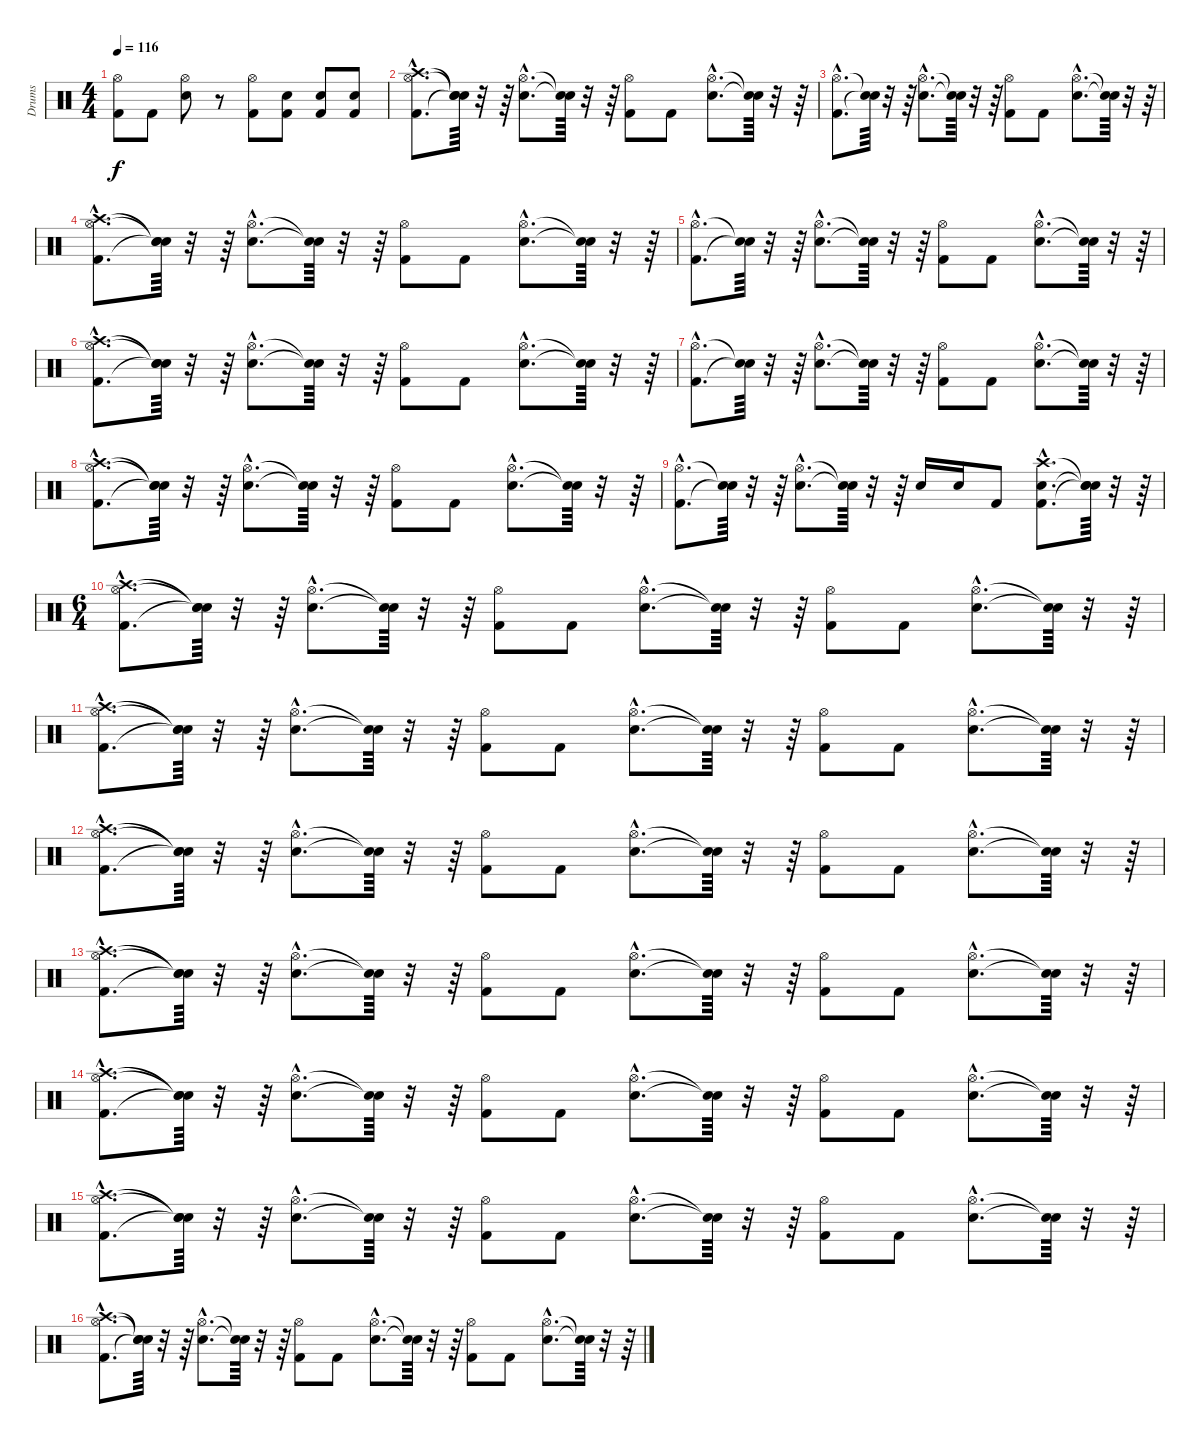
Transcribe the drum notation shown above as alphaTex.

\track ("Drums" "Drums") {instrument percussion}
\staff {score}
\articulation defaults
\ts (4 4)
\tempo 116
\clef neutral
\ks c
("Kick (hit) 2" "Hi-Hat (open)").8{dy f} "Kick (hit) 2".8 ("Snare (hit) 2" "Hi-Hat (open)").8 r.8 ("Kick (hit) 2" "Hi-Hat (open)").8 ("Kick (hit) 2" "Snare (hit) 2").8 ("Kick (hit) 2" "Snare (hit) 2").8 ("Kick (hit) 2" "Snare (hit) 2").8 |
("Kick (hit) 2"{hac} "Hi-Hat (open)"{hac} "Crash high (hit)"{hac}).8{d} ("Snare (hit)"{t} "Snare (hit)"{t} "Snare (hit)"{t}).64 r.32 r.64 ("Snare (hit) 2"{hac} "Hi-Hat (open)"{hac}).8{d} ("Snare (hit)"{t} "Snare (hit)"{t}).64 r.32 r.64 ("Kick (hit) 2" "Hi-Hat (open)").8 "Kick (hit) 2".8 ("Snare (hit) 2"{hac} "Hi-Hat (open)"{hac}).8{d} ("Snare (hit)"{t} "Snare (hit)"{t}).64 r.32 r.64 |
("Kick (hit) 2"{hac} "Hi-Hat (open)"{hac}).8{d} ("Snare (hit)"{t} "Snare (hit)"{t}).64 r.32 r.64 ("Snare (hit) 2"{hac} "Hi-Hat (open)"{hac}).8{d} ("Snare (hit)"{t} "Snare (hit)"{t}).64 r.32 r.64 ("Kick (hit) 2" "Hi-Hat (open)").8 "Kick (hit) 2".8 ("Snare (hit) 2"{hac} "Hi-Hat (open)"{hac}).8{d} ("Snare (hit)"{t} "Snare (hit)"{t}).64 r.32 r.64 |
("Kick (hit) 2"{hac} "Hi-Hat (open)"{hac} "Crash high (hit)"{hac}).8{d} ("Snare (hit)"{t} "Snare (hit)"{t} "Snare (hit)"{t}).64 r.32 r.64 ("Snare (hit) 2"{hac} "Hi-Hat (open)"{hac}).8{d} ("Snare (hit)"{t} "Snare (hit)"{t}).64 r.32 r.64 ("Kick (hit) 2" "Hi-Hat (open)").8 "Kick (hit) 2".8 ("Snare (hit) 2"{hac} "Hi-Hat (open)"{hac}).8{d} ("Snare (hit)"{t} "Snare (hit)"{t}).64 r.32 r.64 |
("Kick (hit) 2"{hac} "Hi-Hat (open)"{hac}).8{d} ("Snare (hit)"{t} "Snare (hit)"{t}).64 r.32 r.64 ("Snare (hit) 2"{hac} "Hi-Hat (open)"{hac}).8{d} ("Snare (hit)"{t} "Snare (hit)"{t}).64 r.32 r.64 ("Kick (hit) 2" "Hi-Hat (open)").8 "Kick (hit) 2".8 ("Snare (hit) 2"{hac} "Hi-Hat (open)"{hac}).8{d} ("Snare (hit)"{t} "Snare (hit)"{t}).64 r.32 r.64 |
("Kick (hit) 2"{hac} "Hi-Hat (open)"{hac} "Crash high (hit)"{hac}).8{d} ("Snare (hit)"{t} "Snare (hit)"{t} "Snare (hit)"{t}).64 r.32 r.64 ("Snare (hit) 2"{hac} "Hi-Hat (open)"{hac}).8{d} ("Snare (hit)"{t} "Snare (hit)"{t}).64 r.32 r.64 ("Kick (hit) 2" "Hi-Hat (open)").8 "Kick (hit) 2".8 ("Snare (hit) 2"{hac} "Hi-Hat (open)"{hac}).8{d} ("Snare (hit)"{t} "Snare (hit)"{t}).64 r.32 r.64 |
("Kick (hit) 2"{hac} "Hi-Hat (open)"{hac}).8{d} ("Snare (hit)"{t} "Snare (hit)"{t}).64 r.32 r.64 ("Snare (hit) 2"{hac} "Hi-Hat (open)"{hac}).8{d} ("Snare (hit)"{t} "Snare (hit)"{t}).64 r.32 r.64 ("Kick (hit) 2" "Hi-Hat (open)").8 "Kick (hit) 2".8 ("Snare (hit) 2"{hac} "Hi-Hat (open)"{hac}).8{d} ("Snare (hit)"{t} "Snare (hit)"{t}).64 r.32 r.64 |
("Kick (hit) 2"{hac} "Hi-Hat (open)"{hac} "Crash high (hit)"{hac}).8{d} ("Snare (hit)"{t} "Snare (hit)"{t} "Snare (hit)"{t}).64 r.32 r.64 ("Snare (hit) 2"{hac} "Hi-Hat (open)"{hac}).8{d} ("Snare (hit)"{t} "Snare (hit)"{t}).64 r.32 r.64 ("Kick (hit) 2" "Hi-Hat (open)").8 "Kick (hit) 2".8 ("Snare (hit) 2"{hac} "Hi-Hat (open)"{hac}).8{d} ("Snare (hit)"{t} "Snare (hit)"{t}).64 r.32 r.64 |
("Kick (hit) 2"{hac} "Hi-Hat (open)"{hac}).8{d} ("Snare (hit)"{t} "Snare (hit)"{t}).64 r.32 r.64 ("Snare (hit) 2"{hac} "Hi-Hat (open)"{hac}).8{d} ("Snare (hit)"{t} "Snare (hit)"{t}).64 r.32 r.64 "Snare (hit) 2".16 "Snare (hit) 2".16 "Kick (hit) 2".8 ("Kick (hit) 2"{hac} "Snare (hit) 2"{hac} "Crash high (hit)"{hac}).8{d} ("Snare (hit)"{t} "Snare (hit)"{t} "Snare (hit)"{t}).64 r.32 r.64 |
\ts (6 4)
("Kick (hit) 2"{hac} "Hi-Hat (open)"{hac} "Crash high (hit)"{hac}).8{d} ("Snare (hit)"{t} "Snare (hit)"{t} "Snare (hit)"{t}).64 r.32 r.64 ("Snare (hit) 2"{hac} "Hi-Hat (open)"{hac}).8{d} ("Snare (hit)"{t} "Snare (hit)"{t}).64 r.32 r.64 ("Kick (hit) 2" "Hi-Hat (open)").8 "Kick (hit) 2".8 ("Snare (hit) 2"{hac} "Hi-Hat (open)"{hac}).8{d} ("Snare (hit)"{t} "Snare (hit)"{t}).64 r.32 r.64 ("Kick (hit) 2" "Hi-Hat (open)").8 "Kick (hit) 2".8 ("Snare (hit) 2"{hac} "Hi-Hat (open)"{hac}).8{d} ("Snare (hit)"{t} "Snare (hit)"{t}).64 r.32 r.64 |
("Kick (hit) 2"{hac} "Hi-Hat (open)"{hac} "Crash high (hit)"{hac}).8{d} ("Snare (hit)"{t} "Snare (hit)"{t} "Snare (hit)"{t}).64 r.32 r.64 ("Snare (hit) 2"{hac} "Hi-Hat (open)"{hac}).8{d} ("Snare (hit)"{t} "Snare (hit)"{t}).64 r.32 r.64 ("Kick (hit) 2" "Hi-Hat (open)").8 "Kick (hit) 2".8 ("Snare (hit) 2"{hac} "Hi-Hat (open)"{hac}).8{d} ("Snare (hit)"{t} "Snare (hit)"{t}).64 r.32 r.64 ("Kick (hit) 2" "Hi-Hat (open)").8 "Kick (hit) 2".8 ("Snare (hit) 2"{hac} "Hi-Hat (open)"{hac}).8{d} ("Snare (hit)"{t} "Snare (hit)"{t}).64 r.32 r.64 |
("Kick (hit) 2"{hac} "Hi-Hat (open)"{hac} "Crash high (hit)"{hac}).8{d} ("Snare (hit)"{t} "Snare (hit)"{t} "Snare (hit)"{t}).64 r.32 r.64 ("Snare (hit) 2"{hac} "Hi-Hat (open)"{hac}).8{d} ("Snare (hit)"{t} "Snare (hit)"{t}).64 r.32 r.64 ("Kick (hit) 2" "Hi-Hat (open)").8 "Kick (hit) 2".8 ("Snare (hit) 2"{hac} "Hi-Hat (open)"{hac}).8{d} ("Snare (hit)"{t} "Snare (hit)"{t}).64 r.32 r.64 ("Kick (hit) 2" "Hi-Hat (open)").8 "Kick (hit) 2".8 ("Snare (hit) 2"{hac} "Hi-Hat (open)"{hac}).8{d} ("Snare (hit)"{t} "Snare (hit)"{t}).64 r.32 r.64 |
("Kick (hit) 2"{hac} "Hi-Hat (open)"{hac} "Crash high (hit)"{hac}).8{d} ("Snare (hit)"{t} "Snare (hit)"{t} "Snare (hit)"{t}).64 r.32 r.64 ("Snare (hit) 2"{hac} "Hi-Hat (open)"{hac}).8{d} ("Snare (hit)"{t} "Snare (hit)"{t}).64 r.32 r.64 ("Kick (hit) 2" "Hi-Hat (open)").8 "Kick (hit) 2".8 ("Snare (hit) 2"{hac} "Hi-Hat (open)"{hac}).8{d} ("Snare (hit)"{t} "Snare (hit)"{t}).64 r.32 r.64 ("Kick (hit) 2" "Hi-Hat (open)").8 "Kick (hit) 2".8 ("Snare (hit) 2"{hac} "Hi-Hat (open)"{hac}).8{d} ("Snare (hit)"{t} "Snare (hit)"{t}).64 r.32 r.64 |
("Kick (hit) 2"{hac} "Hi-Hat (open)"{hac} "Crash high (hit)"{hac}).8{d} ("Snare (hit)"{t} "Snare (hit)"{t} "Snare (hit)"{t}).64 r.32 r.64 ("Snare (hit) 2"{hac} "Hi-Hat (open)"{hac}).8{d} ("Snare (hit)"{t} "Snare (hit)"{t}).64 r.32 r.64 ("Kick (hit) 2" "Hi-Hat (open)").8 "Kick (hit) 2".8 ("Snare (hit) 2"{hac} "Hi-Hat (open)"{hac}).8{d} ("Snare (hit)"{t} "Snare (hit)"{t}).64 r.32 r.64 ("Kick (hit) 2" "Hi-Hat (open)").8 "Kick (hit) 2".8 ("Snare (hit) 2"{hac} "Hi-Hat (open)"{hac}).8{d} ("Snare (hit)"{t} "Snare (hit)"{t}).64 r.32 r.64 |
("Kick (hit) 2"{hac} "Hi-Hat (open)"{hac} "Crash high (hit)"{hac}).8{d} ("Snare (hit)"{t} "Snare (hit)"{t} "Snare (hit)"{t}).64 r.32 r.64 ("Snare (hit) 2"{hac} "Hi-Hat (open)"{hac}).8{d} ("Snare (hit)"{t} "Snare (hit)"{t}).64 r.32 r.64 ("Kick (hit) 2" "Hi-Hat (open)").8 "Kick (hit) 2".8 ("Snare (hit) 2"{hac} "Hi-Hat (open)"{hac}).8{d} ("Snare (hit)"{t} "Snare (hit)"{t}).64 r.32 r.64 ("Kick (hit) 2" "Hi-Hat (open)").8 "Kick (hit) 2".8 ("Snare (hit) 2"{hac} "Hi-Hat (open)"{hac}).8{d} ("Snare (hit)"{t} "Snare (hit)"{t}).64 r.32 r.64 |
("Kick (hit) 2"{hac} "Hi-Hat (open)"{hac} "Crash high (hit)"{hac}).8{d} ("Snare (hit)"{t} "Snare (hit)"{t} "Snare (hit)"{t}).64 r.32 r.64 ("Snare (hit) 2"{hac} "Hi-Hat (open)"{hac}).8{d} ("Snare (hit)"{t} "Snare (hit)"{t}).64 r.32 r.64 ("Kick (hit) 2" "Hi-Hat (open)").8 "Kick (hit) 2".8 ("Snare (hit) 2"{hac} "Hi-Hat (open)"{hac}).8{d} ("Snare (hit)"{t} "Snare (hit)"{t}).64 r.32 r.64 ("Kick (hit) 2" "Hi-Hat (open)").8 "Kick (hit) 2".8 ("Snare (hit) 2"{hac} "Hi-Hat (open)"{hac}).8{d} ("Snare (hit)"{t} "Snare (hit)"{t}).64 r.32 r.64
